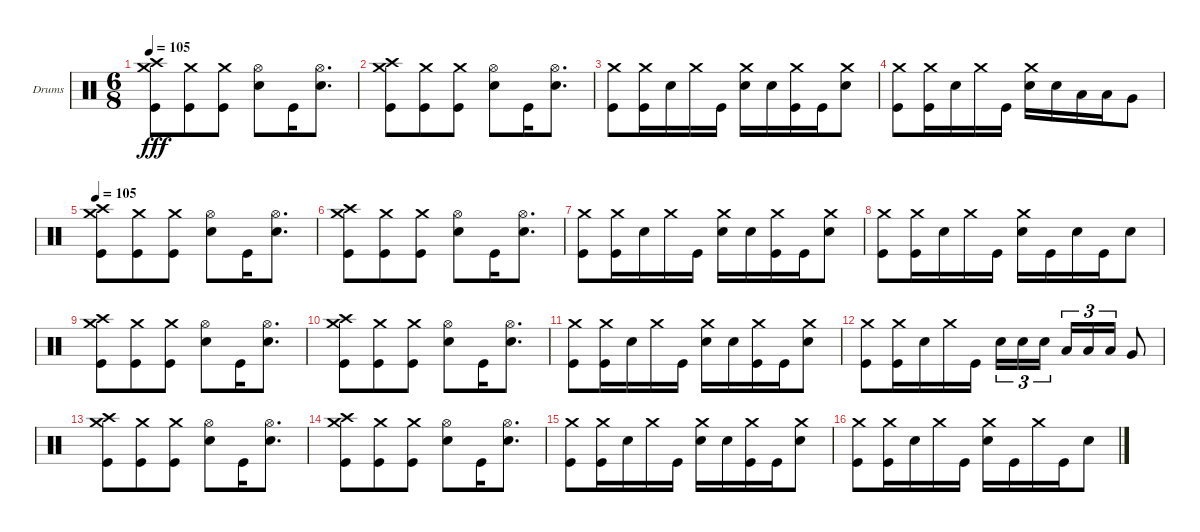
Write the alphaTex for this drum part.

\bracketExtendMode groupsimilarinstruments
\firstSystemTrackNameOrientation horizontal
\otherSystemsTrackNameOrientation horizontal
\track ("Andrew Forsman" "Drums") {instrument percussion}
\staff {score}
\articulation defaults
\ts (6 8)
\tempo 105
\clef neutral
\scale
0.333333
\ks c
("Kick (hit)" "Crash medium (hit)" "Crash high (hit)").8{dy fff} ("Kick (hit)" "Crash medium (hit)").8 ("Kick (hit)" "Crash medium (hit)").8 ("Snare (hit) 2" "Hi-Hat (open)").8 "Kick (hit)".16 ("Snare (hit) 2" "Hi-Hat (open)").8{d} |
\scale
0.333333 ("Kick (hit)" "Crash medium (hit)" "Crash high (hit)").8 ("Kick (hit)" "Crash medium (hit)").8 ("Kick (hit)" "Crash medium (hit)").8 ("Snare (hit) 2" "Hi-Hat (open)").8 "Kick (hit)".16 ("Snare (hit) 2" "Hi-Hat (open)").8{d} |
\scale
0.333333 ("Kick (hit)" "Crash medium (hit)").8 ("Kick (hit)" "Crash medium (hit)").16 "Snare (hit) 2".16 "Crash medium (hit)".16 "Kick (hit)".16 ("Snare (hit) 2" "Crash medium (hit)").16 "Snare (hit) 2".16 ("Kick (hit)" "Crash medium (hit)").16 "Kick (hit)".16 ("Snare (hit) 2" "Crash medium (hit)").8 |
\scale
0.333333 ("Kick (hit)" "Crash medium (hit)").8 ("Kick (hit)" "Crash medium (hit)").16 "Snare (hit) 2".16 "Crash medium (hit)".16 "Kick (hit)".16 ("Snare (hit) 2" "Crash medium (hit)").16 "Snare (hit) 2".16 "Low Tom (hit)".16 "Low Tom (hit)".16 "Very Low Tom (hit)".8 |
\tempo 105
\scale
0.333333 ("Kick (hit)" "Crash medium (hit)" "Crash high (hit)").8 ("Kick (hit)" "Crash medium (hit)").8 ("Kick (hit)" "Crash medium (hit)").8 ("Snare (hit) 2" "Hi-Hat (open)").8 "Kick (hit)".16 ("Snare (hit) 2" "Hi-Hat (open)").8{d} |
\scale
0.333333 ("Kick (hit)" "Crash medium (hit)" "Crash high (hit)").8 ("Kick (hit)" "Crash medium (hit)").8 ("Kick (hit)" "Crash medium (hit)").8 ("Snare (hit) 2" "Hi-Hat (open)").8 "Kick (hit)".16 ("Snare (hit) 2" "Hi-Hat (open)").8{d} |
\scale
0.333333 ("Kick (hit)" "Crash medium (hit)").8 ("Kick (hit)" "Crash medium (hit)").16 "Snare (hit) 2".16 "Crash medium (hit)".16 "Kick (hit)".16 ("Snare (hit) 2" "Crash medium (hit)").16 "Snare (hit) 2".16 ("Kick (hit)" "Crash medium (hit)").16 "Kick (hit)".16 ("Snare (hit) 2" "Crash medium (hit)").8 |
\scale
0.333333 ("Kick (hit)" "Crash medium (hit)").8 ("Kick (hit)" "Crash medium (hit)").16 "Snare (hit) 2".16 "Crash medium (hit)".16 "Kick (hit)".16 ("Snare (hit) 2" "Crash medium (hit)").16 "Kick (hit)".16 "Snare (hit) 2".16 "Kick (hit)".16 "Snare (hit) 2".8 |
\scale
0.333333 ("Kick (hit)" "Crash medium (hit)" "Crash high (hit)").8 ("Kick (hit)" "Crash medium (hit)").8 ("Kick (hit)" "Crash medium (hit)").8 ("Snare (hit) 2" "Hi-Hat (open)").8 "Kick (hit)".16 ("Snare (hit) 2" "Hi-Hat (open)").8{d} |
\scale
0.333333 ("Kick (hit)" "Crash medium (hit)" "Crash high (hit)").8 ("Kick (hit)" "Crash medium (hit)").8 ("Kick (hit)" "Crash medium (hit)").8 ("Snare (hit) 2" "Hi-Hat (open)").8 "Kick (hit)".16 ("Snare (hit) 2" "Hi-Hat (open)").8{d} |
\scale
0.333333 ("Kick (hit)" "Crash medium (hit)").8 ("Kick (hit)" "Crash medium (hit)").16 "Snare (hit) 2".16 "Crash medium (hit)".16 "Kick (hit)".16 ("Snare (hit) 2" "Crash medium (hit)").16 "Snare (hit) 2".16 ("Kick (hit)" "Crash medium (hit)").16 "Kick (hit)".16 ("Snare (hit) 2" "Crash medium (hit)").8 |
\scale
0.333333 ("Kick (hit)" "Crash medium (hit)").8 ("Kick (hit)" "Crash medium (hit)").16 "Snare (hit) 2".16 "Crash medium (hit)".16 "Kick (hit)".16 "Snare (hit) 2".16{tu (3 2)} "Snare (hit) 2".16{tu (3 2)} "Snare (hit) 2".16{tu (3 2)} "Low Tom (hit)".16{tu (3 2)} "Low Tom (hit)".16{tu (3 2)} "Low Tom (hit)".16{tu (3 2)} "Very Low Tom (hit)".8 |
\scale
0.333333 ("Kick (hit)" "Crash medium (hit)" "Crash high (hit)").8 ("Kick (hit)" "Crash medium (hit)").8 ("Kick (hit)" "Crash medium (hit)").8 ("Snare (hit) 2" "Hi-Hat (open)").8 "Kick (hit)".16 ("Snare (hit) 2" "Hi-Hat (open)").8{d} |
\scale
0.333333 ("Kick (hit)" "Crash medium (hit)" "Crash high (hit)").8 ("Kick (hit)" "Crash medium (hit)").8 ("Kick (hit)" "Crash medium (hit)").8 ("Snare (hit) 2" "Hi-Hat (open)").8 "Kick (hit)".16 ("Snare (hit) 2" "Hi-Hat (open)").8{d} |
\scale
0.333333 ("Kick (hit)" "Crash medium (hit)").8 ("Kick (hit)" "Crash medium (hit)").16 "Snare (hit) 2".16 "Crash medium (hit)".16 "Kick (hit)".16 ("Snare (hit) 2" "Crash medium (hit)").16 "Snare (hit) 2".16 ("Kick (hit)" "Crash medium (hit)").16 "Kick (hit)".16 ("Snare (hit) 2" "Crash medium (hit)").8 |
\scale
0.333333 ("Kick (hit)" "Crash medium (hit)").8 ("Kick (hit)" "Crash medium (hit)").16 "Snare (hit) 2".16 "Crash medium (hit)".16 "Kick (hit)".16 ("Snare (hit) 2" "Crash medium (hit)").16 "Kick (hit)".16 "Crash medium (hit)".16 "Kick (hit)".16 "Snare (hit) 2".8
